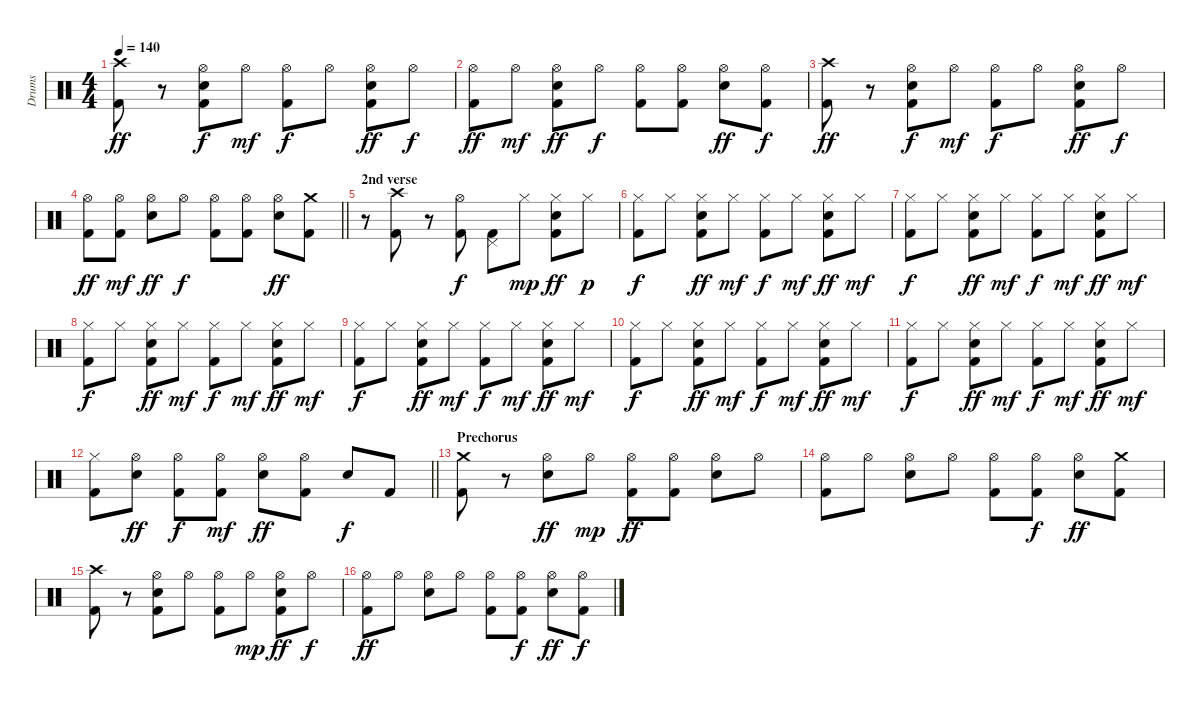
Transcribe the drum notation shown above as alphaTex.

\track ("Drums" "Drums") {instrument percussion}
\staff {score}
\articulation defaults
\ts (4 4)
\tempo 140
\clef neutral
\ks c
("Crash high (hit)" "Kick (hit) 2").8{dy ff} r.8 ("Hi-Hat (open)" "Electric Snare (hit)" "Kick (hit) 2").8{dy f} "Hi-Hat (open)".8{dy mf} ("Hi-Hat (open)" "Kick (hit) 2").8{dy f} "Hi-Hat (open)".8 ("Hi-Hat (open)" "Electric Snare (hit)" "Kick (hit) 2").8{dy ff} "Hi-Hat (open)".8{dy f} |
("Hi-Hat (open)" "Kick (hit) 2").8{dy ff} "Hi-Hat (open)".8{dy mf} ("Hi-Hat (open)" "Electric Snare (hit)" "Kick (hit) 2").8{dy ff} "Hi-Hat (open)".8{dy f} ("Hi-Hat (open)" "Kick (hit) 2").8 ("Hi-Hat (open)" "Kick (hit) 2").8 ("Hi-Hat (open)" "Electric Snare (hit)").8{dy ff} ("Hi-Hat (open)" "Kick (hit) 2").8{dy f} |
("Crash high (hit)" "Kick (hit) 2").8{dy ff} r.8 ("Hi-Hat (open)" "Electric Snare (hit)" "Kick (hit) 2").8{dy f} "Hi-Hat (open)".8{dy mf} ("Hi-Hat (open)" "Kick (hit) 2").8{dy f} "Hi-Hat (open)".8 ("Hi-Hat (open)" "Electric Snare (hit)" "Kick (hit) 2").8{dy ff} "Hi-Hat (open)".8{dy f} |
\barLineRight lightlight
("Hi-Hat (open)" "Kick (hit) 2").8{dy ff} ("Hi-Hat (open)" "Kick (hit) 2").8{dy mf} ("Hi-Hat (open)" "Electric Snare (hit)").8{dy ff} "Hi-Hat (open)".8{dy f} ("Hi-Hat (open)" "Kick (hit) 2").8 ("Hi-Hat (open)" "Kick (hit) 2").8 ("Hi-Hat (open)" "Electric Snare (hit)").8{dy ff} ("Crash medium (hit)" "Kick (hit) 2").8 |
\section ("" "2nd verse")
r.8 ("Crash high (hit)" "Kick (hit) 2").8 r.8 ("Hi-Hat (open)" "Kick (hit) 2").8{dy f} ("Pedal Hi-Hat (hit)" "Kick (hit) 2").8 "Hi-Hat (closed)".8{dy mp} ("Hi-Hat (closed)" "Electric Snare (hit)" "Kick (hit) 2").8{dy ff} "Hi-Hat (closed)".8{dy p} |
("Hi-Hat (closed)" "Kick (hit) 2").8{dy f} "Hi-Hat (closed)".8 ("Hi-Hat (closed)" "Electric Snare (hit)" "Kick (hit) 2").8{dy ff} "Hi-Hat (closed)".8{dy mf} ("Hi-Hat (closed)" "Kick (hit) 2").8{dy f} "Hi-Hat (closed)".8{dy mf} ("Hi-Hat (closed)" "Electric Snare (hit)" "Kick (hit) 2").8{dy ff} "Hi-Hat (closed)".8{dy mf} |
("Hi-Hat (closed)" "Kick (hit) 2").8{dy f} "Hi-Hat (closed)".8 ("Hi-Hat (closed)" "Electric Snare (hit)" "Kick (hit) 2").8{dy ff} "Hi-Hat (closed)".8{dy mf} ("Hi-Hat (closed)" "Kick (hit) 2").8{dy f} "Hi-Hat (closed)".8{dy mf} ("Hi-Hat (closed)" "Electric Snare (hit)" "Kick (hit) 2").8{dy ff} "Hi-Hat (closed)".8{dy mf} |
("Hi-Hat (closed)" "Kick (hit) 2").8{dy f} "Hi-Hat (closed)".8 ("Hi-Hat (closed)" "Electric Snare (hit)" "Kick (hit) 2").8{dy ff} "Hi-Hat (closed)".8{dy mf} ("Hi-Hat (closed)" "Kick (hit) 2").8{dy f} "Hi-Hat (closed)".8{dy mf} ("Hi-Hat (closed)" "Electric Snare (hit)" "Kick (hit) 2").8{dy ff} "Hi-Hat (closed)".8{dy mf} |
("Hi-Hat (closed)" "Kick (hit) 2").8{dy f} "Hi-Hat (closed)".8 ("Hi-Hat (closed)" "Electric Snare (hit)" "Kick (hit) 2").8{dy ff} "Hi-Hat (closed)".8{dy mf} ("Hi-Hat (closed)" "Kick (hit) 2").8{dy f} "Hi-Hat (closed)".8{dy mf} ("Hi-Hat (closed)" "Electric Snare (hit)" "Kick (hit) 2").8{dy ff} "Hi-Hat (closed)".8{dy mf} |
("Hi-Hat (closed)" "Kick (hit) 2").8{dy f} "Hi-Hat (closed)".8 ("Hi-Hat (closed)" "Electric Snare (hit)" "Kick (hit) 2").8{dy ff} "Hi-Hat (closed)".8{dy mf} ("Hi-Hat (closed)" "Kick (hit) 2").8{dy f} "Hi-Hat (closed)".8{dy mf} ("Hi-Hat (closed)" "Electric Snare (hit)" "Kick (hit) 2").8{dy ff} "Hi-Hat (closed)".8{dy mf} |
("Hi-Hat (closed)" "Kick (hit) 2").8{dy f} "Hi-Hat (closed)".8 ("Hi-Hat (closed)" "Electric Snare (hit)" "Kick (hit) 2").8{dy ff} "Hi-Hat (closed)".8{dy mf} ("Hi-Hat (closed)" "Kick (hit) 2").8{dy f} "Hi-Hat (closed)".8{dy mf} ("Hi-Hat (closed)" "Electric Snare (hit)" "Kick (hit) 2").8{dy ff} "Hi-Hat (closed)".8{dy mf} |
\barLineRight lightlight
("Hi-Hat (closed)" "Kick (hit) 2").8 ("Hi-Hat (open)" "Electric Snare (hit)").8{dy ff} ("Hi-Hat (open)" "Kick (hit) 2").8{dy f} ("Hi-Hat (open)" "Kick (hit) 2").8{dy mf} ("Hi-Hat (open)" "Electric Snare (hit)").8{dy ff} ("Hi-Hat (open)" "Kick (hit) 2").8 "Electric Snare (hit)".8{dy f} "Kick (hit) 2".8 |
\section ("" "Prechorus")
("Crash medium (hit)" "Kick (hit) 2").8 r.8 ("Hi-Hat (open)" "Electric Snare (hit)").8{dy ff} "Hi-Hat (open)".8{dy mp} ("Hi-Hat (open)" "Kick (hit) 2").8{dy ff} ("Hi-Hat (open)" "Kick (hit) 2").8 ("Hi-Hat (open)" "Electric Snare (hit)").8 "Hi-Hat (open)".8 |
("Hi-Hat (open)" "Kick (hit) 2").8 "Hi-Hat (open)".8 ("Hi-Hat (open)" "Electric Snare (hit)").8 "Hi-Hat (open)".8 ("Hi-Hat (open)" "Kick (hit) 2").8 ("Hi-Hat (open)" "Kick (hit) 2").8{dy f} ("Hi-Hat (open)" "Electric Snare (hit)").8{dy ff} ("Crash medium (hit)" "Kick (hit) 2").8 |
("Crash high (hit)" "Kick (hit) 2").8 r.8 ("Hi-Hat (open)" "Electric Snare (hit)" "Kick (hit) 2").8 "Hi-Hat (open)".8 ("Hi-Hat (open)" "Kick (hit) 2").8 "Hi-Hat (open)".8{dy mp} ("Hi-Hat (open)" "Electric Snare (hit)" "Kick (hit) 2").8{dy ff} "Hi-Hat (open)".8{dy f} |
("Hi-Hat (open)" "Kick (hit) 2").8{dy ff} "Hi-Hat (open)".8 ("Hi-Hat (open)" "Electric Snare (hit)").8 "Hi-Hat (open)".8 ("Hi-Hat (open)" "Kick (hit) 2").8 ("Hi-Hat (open)" "Kick (hit) 2").8{dy f} ("Hi-Hat (open)" "Electric Snare (hit)").8{dy ff} ("Hi-Hat (open)" "Kick (hit) 2").8{dy f}
